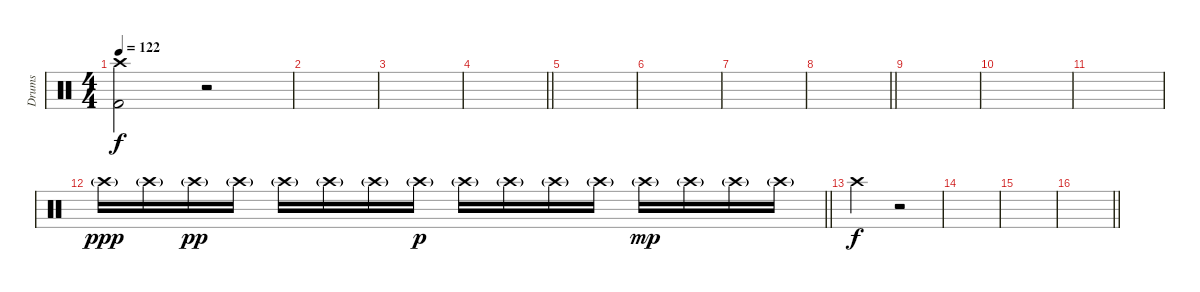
\track ("Drums" "Drums") {instrument percussion}
\staff {score}
\articulation defaults
\ts (4 4)
\tempo 122
\clef neutral
\ks c
("Crash high (hit)" "Kick (hit) 2").2{dy f} r.2 |
|
|
\barLineRight lightlight
|
|
|
|
\barLineRight lightlight
|
|
|
|
\barLineRight lightlight "Crash high (hit)"{g}.16{dy ppp} "Crash high (hit)"{g}.16 "Crash high (hit)"{g}.16{dy pp} "Crash high (hit)"{g}.16 "Crash high (hit)"{g}.16 "Crash high (hit)"{g}.16 "Crash high (hit)"{g}.16 "Crash high (hit)"{g}.16{dy p} "Crash high (hit)"{g}.16 "Crash high (hit)"{g}.16 "Crash high (hit)"{g}.16 "Crash high (hit)"{g}.16 "Crash high (hit)"{g}.16{dy mp} "Crash high (hit)"{g}.16 "Crash high (hit)"{g}.16 "Crash high (hit)"{g}.16
|
"Crash high (hit)".2{dy f} r.2 |
|
|
\barLineRight lightlight
